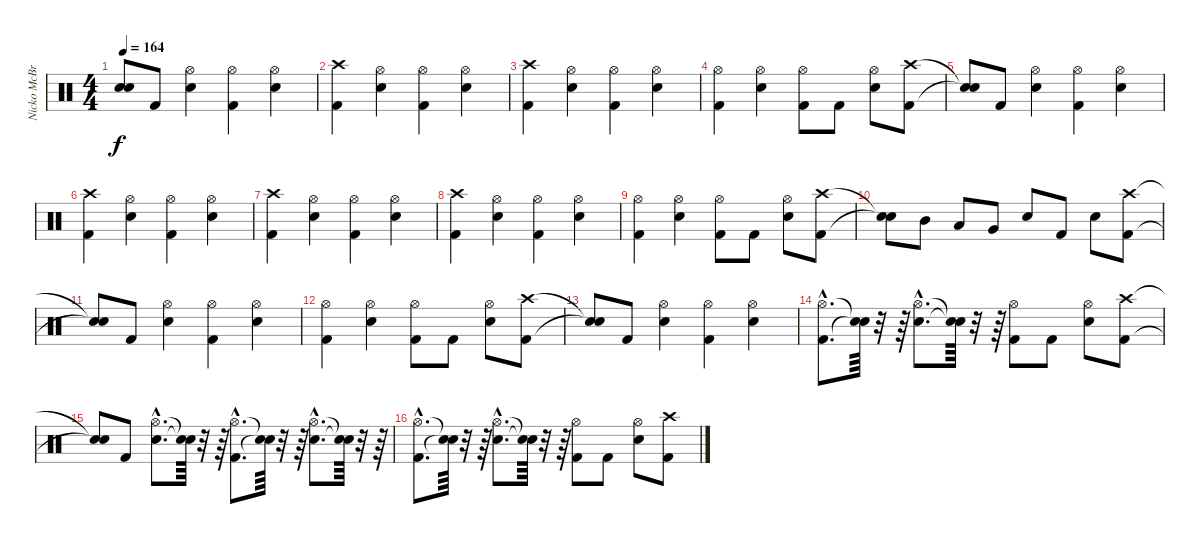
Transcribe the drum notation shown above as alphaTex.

\track ("Nicko McBrian (Drums)" "Nicko McBr") {instrument percussion}
\staff {score}
\articulation defaults
\ts (4 4)
\tempo 164
\clef neutral
\ks c
("Snare (hit)"{t} "Snare (hit)"{t}).8{dy f} "Kick (hit) 2".8 ("Snare (hit) 2" "Hi-Hat (open)").4 ("Kick (hit) 2" "Hi-Hat (open)").4 ("Snare (hit) 2" "Hi-Hat (open)").4 |
("Kick (hit) 2" "Crash high (hit)").4 ("Snare (hit) 2" "Hi-Hat (open)").4 ("Kick (hit) 2" "Hi-Hat (open)").4 ("Snare (hit) 2" "Hi-Hat (open)").4 |
("Kick (hit) 2" "Crash high (hit)").4 ("Snare (hit) 2" "Hi-Hat (open)").4 ("Kick (hit) 2" "Hi-Hat (open)").4 ("Snare (hit) 2" "Hi-Hat (open)").4 |
("Kick (hit) 2" "Hi-Hat (open)").4 ("Snare (hit) 2" "Hi-Hat (open)").4 ("Kick (hit) 2" "Hi-Hat (open)").8 "Kick (hit) 2".8 ("Snare (hit) 2" "Hi-Hat (open)").8 ("Kick (hit) 2" "Crash high (hit)").8 |
("Snare (hit)"{t} "Snare (hit)"{t}).8 "Kick (hit) 2".8 ("Snare (hit) 2" "Hi-Hat (open)").4 ("Kick (hit) 2" "Hi-Hat (open)").4 ("Snare (hit) 2" "Hi-Hat (open)").4 |
("Kick (hit) 2" "Crash high (hit)").4 ("Snare (hit) 2" "Hi-Hat (open)").4 ("Kick (hit) 2" "Hi-Hat (open)").4 ("Snare (hit) 2" "Hi-Hat (open)").4 |
("Kick (hit) 2" "Crash high (hit)").4 ("Snare (hit) 2" "Hi-Hat (open)").4 ("Kick (hit) 2" "Hi-Hat (open)").4 ("Snare (hit) 2" "Hi-Hat (open)").4 |
("Kick (hit) 2" "Crash high (hit)").4 ("Snare (hit) 2" "Hi-Hat (open)").4 ("Kick (hit) 2" "Hi-Hat (open)").4 ("Snare (hit) 2" "Hi-Hat (open)").4 |
("Kick (hit) 2" "Hi-Hat (open)").4 ("Snare (hit) 2" "Hi-Hat (open)").4 ("Kick (hit) 2" "Hi-Hat (open)").8 "Kick (hit) 2".8 ("Snare (hit) 2" "Hi-Hat (open)").8 ("Kick (hit) 2" "Crash high (hit)").8 |
("Snare (hit)"{t} "Snare (hit)"{t}).8 "Mid Tom (hit)".8 "Low Tom (hit)".8 "Very Low Tom (hit)".8 "Snare (hit) 2".8 "Kick (hit) 2".8 "Snare (hit) 2".8 ("Kick (hit) 2" "Crash high (hit)").8 |
("Snare (hit)"{t} "Snare (hit)"{t}).8 "Kick (hit) 2".8 ("Snare (hit) 2" "Hi-Hat (open)").4 ("Kick (hit) 2" "Hi-Hat (open)").4 ("Snare (hit) 2" "Hi-Hat (open)").4 |
("Kick (hit) 2" "Hi-Hat (open)").4 ("Snare (hit) 2" "Hi-Hat (open)").4 ("Kick (hit) 2" "Hi-Hat (open)").8 "Kick (hit) 2".8 ("Snare (hit) 2" "Hi-Hat (open)").8 ("Kick (hit) 2" "Crash high (hit)").8 |
("Snare (hit)"{t} "Snare (hit)"{t}).8 "Kick (hit) 2".8 ("Snare (hit) 2" "Hi-Hat (open)").4 ("Kick (hit) 2" "Hi-Hat (open)").4 ("Snare (hit) 2" "Hi-Hat (open)").4 |
("Kick (hit) 2"{hac} "Hi-Hat (open)"{hac}).8{d} ("Snare (hit)"{t} "Snare (hit)"{t}).64 r.32 r.64 ("Snare (hit) 2"{hac} "Hi-Hat (open)"{hac}).8{d} ("Snare (hit)"{t} "Snare (hit)"{t}).64 r.32 r.64 ("Kick (hit) 2" "Hi-Hat (open)").8 "Kick (hit) 2".8 ("Snare (hit) 2" "Hi-Hat (open)").8 ("Kick (hit) 2" "Crash high (hit)").8 |
("Snare (hit)"{t} "Snare (hit)"{t}).8 "Kick (hit) 2".8 ("Snare (hit) 2"{hac} "Hi-Hat (open)"{hac}).8{d} ("Snare (hit)"{t} "Snare (hit)"{t}).64 r.32 r.64 ("Kick (hit) 2"{hac} "Hi-Hat (open)"{hac}).8{d} ("Snare (hit)"{t} "Snare (hit)"{t}).64 r.32 r.64 ("Snare (hit) 2"{hac} "Hi-Hat (open)"{hac}).8{d} ("Snare (hit)"{t} "Snare (hit)"{t}).64 r.32 r.64 |
("Kick (hit) 2"{hac} "Hi-Hat (open)"{hac}).8{d} ("Snare (hit)"{t} "Snare (hit)"{t}).64 r.32 r.64 ("Snare (hit) 2"{hac} "Hi-Hat (open)"{hac}).8{d} ("Snare (hit)"{t} "Snare (hit)"{t}).64 r.32 r.64 ("Kick (hit) 2" "Hi-Hat (open)").8 "Kick (hit) 2".8 ("Snare (hit) 2" "Hi-Hat (open)").8 ("Kick (hit) 2" "Crash high (hit)").8
